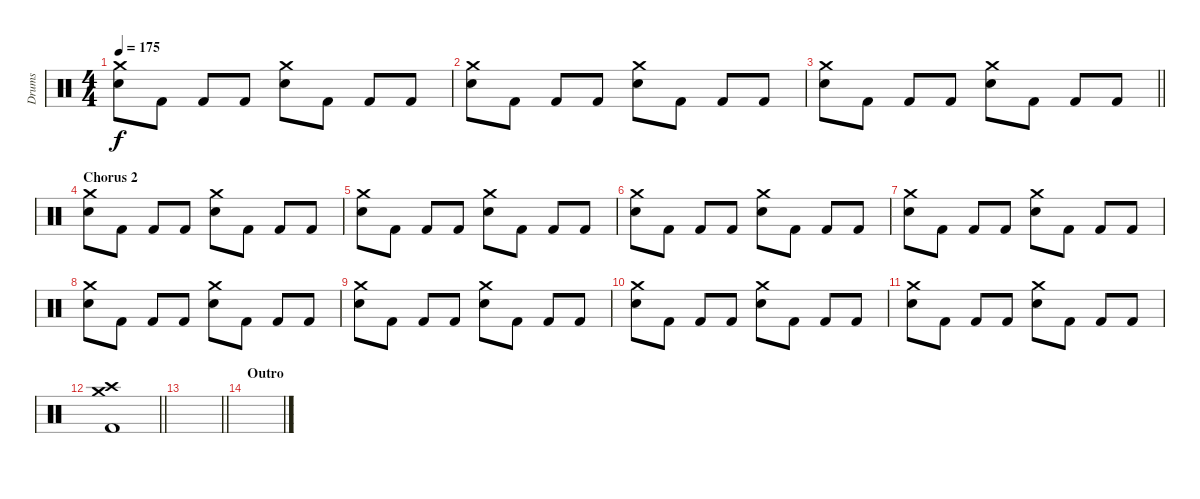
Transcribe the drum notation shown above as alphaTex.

\track ("Drums" "Drums") {instrument percussion}
\staff {score}
\articulation defaults
\ts (4 4)
\tempo 175
\clef neutral
\ks c
("Crash medium (hit)" "Electric Snare (hit)").8{dy f} "Kick (hit) 2".8 "Kick (hit) 2".8 "Kick (hit) 2".8 ("Crash medium (hit)" "Electric Snare (hit)").8 "Kick (hit) 2".8 "Kick (hit) 2".8 "Kick (hit) 2".8 |
("Crash medium (hit)" "Electric Snare (hit)").8 "Kick (hit) 2".8 "Kick (hit) 2".8 "Kick (hit) 2".8 ("Crash medium (hit)" "Electric Snare (hit)").8 "Kick (hit) 2".8 "Kick (hit) 2".8 "Kick (hit) 2".8 |
\barLineRight lightlight
("Crash medium (hit)" "Electric Snare (hit)").8 "Kick (hit) 2".8 "Kick (hit) 2".8 "Kick (hit) 2".8 ("Crash medium (hit)" "Electric Snare (hit)").8 "Kick (hit) 2".8 "Kick (hit) 2".8 "Kick (hit) 2".8 |
\section ("" "Chorus 2")
("Crash medium (hit)" "Electric Snare (hit)").8 "Kick (hit) 2".8 "Kick (hit) 2".8 "Kick (hit) 2".8 ("Crash medium (hit)" "Electric Snare (hit)").8 "Kick (hit) 2".8 "Kick (hit) 2".8 "Kick (hit) 2".8 |
("Crash medium (hit)" "Electric Snare (hit)").8 "Kick (hit) 2".8 "Kick (hit) 2".8 "Kick (hit) 2".8 ("Crash medium (hit)" "Electric Snare (hit)").8 "Kick (hit) 2".8 "Kick (hit) 2".8 "Kick (hit) 2".8 |
("Crash medium (hit)" "Electric Snare (hit)").8 "Kick (hit) 2".8 "Kick (hit) 2".8 "Kick (hit) 2".8 ("Crash medium (hit)" "Electric Snare (hit)").8 "Kick (hit) 2".8 "Kick (hit) 2".8 "Kick (hit) 2".8 |
("Crash medium (hit)" "Electric Snare (hit)").8 "Kick (hit) 2".8 "Kick (hit) 2".8 "Kick (hit) 2".8 ("Crash medium (hit)" "Electric Snare (hit)").8 "Kick (hit) 2".8 "Kick (hit) 2".8 "Kick (hit) 2".8 |
("Crash medium (hit)" "Electric Snare (hit)").8 "Kick (hit) 2".8 "Kick (hit) 2".8 "Kick (hit) 2".8 ("Crash medium (hit)" "Electric Snare (hit)").8 "Kick (hit) 2".8 "Kick (hit) 2".8 "Kick (hit) 2".8 |
("Crash medium (hit)" "Electric Snare (hit)").8 "Kick (hit) 2".8 "Kick (hit) 2".8 "Kick (hit) 2".8 ("Crash medium (hit)" "Electric Snare (hit)").8 "Kick (hit) 2".8 "Kick (hit) 2".8 "Kick (hit) 2".8 |
("Crash medium (hit)" "Electric Snare (hit)").8 "Kick (hit) 2".8 "Kick (hit) 2".8 "Kick (hit) 2".8 ("Crash medium (hit)" "Electric Snare (hit)").8 "Kick (hit) 2".8 "Kick (hit) 2".8 "Kick (hit) 2".8 |
("Crash medium (hit)" "Electric Snare (hit)").8 "Kick (hit) 2".8 "Kick (hit) 2".8 "Kick (hit) 2".8 ("Crash medium (hit)" "Electric Snare (hit)").8 "Kick (hit) 2".8 "Kick (hit) 2".8 "Kick (hit) 2".8 |
\barLineRight lightlight
("Crash medium (hit)" "Crash high (hit)" "Kick (hit) 2").1 |
\section ("" "")
\barLineRight lightlight
|
\section ("" "Outro")
